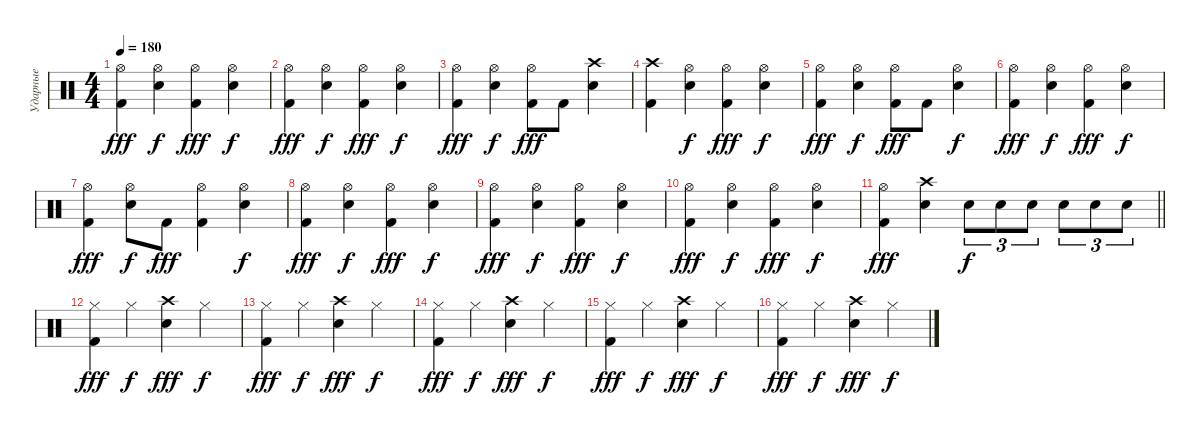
\track ("Ударные" "Ударные") {instrument percussion}
\staff {score}
\articulation defaults
\ts (4 4)
\tempo 180
\clef neutral
\ks c
("Kick (hit) 2" "Hi-Hat (open)").4{dy fff} ("Snare (hit) 2" "Hi-Hat (open)").4{dy f} ("Kick (hit) 2" "Hi-Hat (open)").4{dy fff} ("Snare (hit) 2" "Hi-Hat (open)").4{dy f} |
("Kick (hit) 2" "Hi-Hat (open)").4{dy fff} ("Snare (hit) 2" "Hi-Hat (open)").4{dy f} ("Kick (hit) 2" "Hi-Hat (open)").4{dy fff} ("Snare (hit) 2" "Hi-Hat (open)").4{dy f} |
("Kick (hit) 2" "Hi-Hat (open)").4{dy fff} ("Snare (hit) 2" "Hi-Hat (open)").4{dy f} ("Kick (hit) 2" "Hi-Hat (open)").8{dy fff} "Kick (hit) 2".8 ("Snare (hit) 2" "Crash high (hit)").4 |
("Kick (hit) 2" "Crash high (hit)").4 ("Snare (hit) 2" "Hi-Hat (open)").4{dy f} ("Kick (hit) 2" "Hi-Hat (open)").4{dy fff} ("Snare (hit) 2" "Hi-Hat (open)").4{dy f} |
("Kick (hit) 2" "Hi-Hat (open)").4{dy fff} ("Snare (hit) 2" "Hi-Hat (open)").4{dy f} ("Kick (hit) 2" "Hi-Hat (open)").8{dy fff} "Kick (hit) 2".8 ("Snare (hit) 2" "Hi-Hat (open)").4{dy f} |
("Kick (hit) 2" "Hi-Hat (open)").4{dy fff} ("Snare (hit) 2" "Hi-Hat (open)").4{dy f} ("Kick (hit) 2" "Hi-Hat (open)").4{dy fff} ("Snare (hit) 2" "Hi-Hat (open)").4{dy f} |
("Kick (hit) 2" "Hi-Hat (open)").4{dy fff} ("Snare (hit) 2" "Hi-Hat (open)").8{dy f} "Kick (hit) 2".8{dy fff} ("Kick (hit) 2" "Hi-Hat (open)").4 ("Snare (hit) 2" "Hi-Hat (open)").4{dy f} |
("Kick (hit) 2" "Hi-Hat (open)").4{dy fff} ("Snare (hit) 2" "Hi-Hat (open)").4{dy f} ("Kick (hit) 2" "Hi-Hat (open)").4{dy fff} ("Snare (hit) 2" "Hi-Hat (open)").4{dy f} |
("Kick (hit) 2" "Hi-Hat (open)").4{dy fff} ("Snare (hit) 2" "Hi-Hat (open)").4{dy f} ("Kick (hit) 2" "Hi-Hat (open)").4{dy fff} ("Snare (hit) 2" "Hi-Hat (open)").4{dy f} |
("Kick (hit) 2" "Hi-Hat (open)").4{dy fff} ("Snare (hit) 2" "Hi-Hat (open)").4{dy f} ("Kick (hit) 2" "Hi-Hat (open)").4{dy fff} ("Snare (hit) 2" "Hi-Hat (open)").4{dy f} |
\barLineRight lightlight
("Kick (hit) 2" "Hi-Hat (open)").4{dy fff} ("Snare (hit) 2" "Crash high (hit)").4 "Snare (hit) 2".8{tu (3 2) dy f} "Snare (hit) 2".8{tu (3 2)} "Snare (hit) 2".8{tu (3 2)} "Snare (hit) 2".8{tu (3 2)} "Snare (hit) 2".8{tu (3 2)} "Snare (hit) 2".8{tu (3 2)} |
("Kick (hit) 2" "Hi-Hat (closed)").4{dy fff} "Hi-Hat (closed)".4{dy f} ("Snare (hit) 2" "Crash high (hit)").4{dy fff} "Hi-Hat (closed)".4{dy f} |
("Kick (hit) 2" "Hi-Hat (closed)").4{dy fff} "Hi-Hat (closed)".4{dy f} ("Snare (hit) 2" "Crash high (hit)").4{dy fff} "Hi-Hat (closed)".4{dy f} |
("Kick (hit) 2" "Hi-Hat (closed)").4{dy fff} "Hi-Hat (closed)".4{dy f} ("Snare (hit) 2" "Crash high (hit)").4{dy fff} "Hi-Hat (closed)".4{dy f} |
("Kick (hit) 2" "Hi-Hat (closed)").4{dy fff} "Hi-Hat (closed)".4{dy f} ("Snare (hit) 2" "Crash high (hit)").4{dy fff} "Hi-Hat (closed)".4{dy f} |
("Kick (hit) 2" "Hi-Hat (closed)").4{dy fff} "Hi-Hat (closed)".4{dy f} ("Snare (hit) 2" "Crash high (hit)").4{dy fff} "Hi-Hat (closed)".4{dy f}
